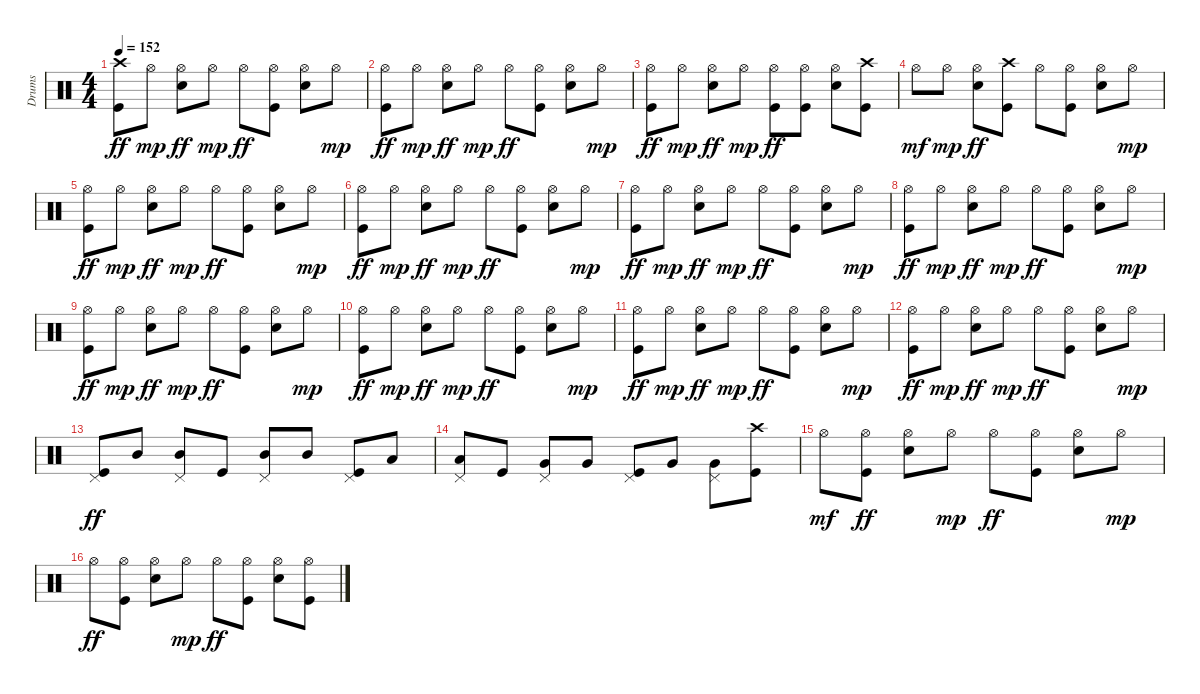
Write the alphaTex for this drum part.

\track ("Drums" "Drums") {instrument percussion}
\staff {score}
\articulation defaults
\ts (4 4)
\tempo 152
\clef neutral
\ks c
("Crash high (hit)" "Kick (hit)").8{dy ff} "Hi-Hat (open)".8{dy mp} ("Hi-Hat (open)" "Snare (hit) 2").8{dy ff} "Hi-Hat (open)".8{dy mp} "Hi-Hat (open)".8{dy ff} ("Hi-Hat (open)" "Kick (hit)").8 ("Hi-Hat (open)" "Snare (hit) 2").8 "Hi-Hat (open)".8{dy mp} |
("Hi-Hat (open)" "Kick (hit)").8{dy ff} "Hi-Hat (open)".8{dy mp} ("Hi-Hat (open)" "Snare (hit) 2").8{dy ff} "Hi-Hat (open)".8{dy mp} "Hi-Hat (open)".8{dy ff} ("Hi-Hat (open)" "Kick (hit)").8 ("Hi-Hat (open)" "Snare (hit) 2").8 "Hi-Hat (open)".8{dy mp} |
("Hi-Hat (open)" "Kick (hit)").8{dy ff} "Hi-Hat (open)".8{dy mp} ("Hi-Hat (open)" "Snare (hit) 2").8{dy ff} "Hi-Hat (open)".8{dy mp} ("Hi-Hat (open)" "Kick (hit)").8{dy ff} ("Hi-Hat (open)" "Kick (hit)").8 ("Hi-Hat (open)" "Snare (hit) 2").8 ("Crash high (hit)" "Kick (hit)").8 |
"Hi-Hat (open)".8{dy mf} "Hi-Hat (open)".8{dy mp} ("Hi-Hat (open)" "Snare (hit) 2").8{dy ff} ("Crash high (hit)" "Kick (hit)").8 "Hi-Hat (open)".8 ("Hi-Hat (open)" "Kick (hit)").8 ("Hi-Hat (open)" "Snare (hit) 2").8 "Hi-Hat (open)".8{dy mp} |
("Hi-Hat (open)" "Kick (hit)").8{dy ff} "Hi-Hat (open)".8{dy mp} ("Hi-Hat (open)" "Snare (hit) 2").8{dy ff} "Hi-Hat (open)".8{dy mp} "Hi-Hat (open)".8{dy ff} ("Hi-Hat (open)" "Kick (hit)").8 ("Hi-Hat (open)" "Snare (hit) 2").8 "Hi-Hat (open)".8{dy mp} |
("Hi-Hat (open)" "Kick (hit)").8{dy ff} "Hi-Hat (open)".8{dy mp} ("Hi-Hat (open)" "Snare (hit) 2").8{dy ff} "Hi-Hat (open)".8{dy mp} "Hi-Hat (open)".8{dy ff} ("Hi-Hat (open)" "Kick (hit)").8 ("Hi-Hat (open)" "Snare (hit) 2").8 "Hi-Hat (open)".8{dy mp} |
("Hi-Hat (open)" "Kick (hit)").8{dy ff} "Hi-Hat (open)".8{dy mp} ("Hi-Hat (open)" "Snare (hit) 2").8{dy ff} "Hi-Hat (open)".8{dy mp} "Hi-Hat (open)".8{dy ff} ("Hi-Hat (open)" "Kick (hit)").8 ("Hi-Hat (open)" "Snare (hit) 2").8 "Hi-Hat (open)".8{dy mp} |
("Hi-Hat (open)" "Kick (hit)").8{dy ff} "Hi-Hat (open)".8{dy mp} ("Hi-Hat (open)" "Snare (hit) 2").8{dy ff} "Hi-Hat (open)".8{dy mp} "Hi-Hat (open)".8{dy ff} ("Hi-Hat (open)" "Kick (hit)").8 ("Hi-Hat (open)" "Snare (hit) 2").8 "Hi-Hat (open)".8{dy mp} |
("Hi-Hat (open)" "Kick (hit)").8{dy ff} "Hi-Hat (open)".8{dy mp} ("Hi-Hat (open)" "Snare (hit) 2").8{dy ff} "Hi-Hat (open)".8{dy mp} "Hi-Hat (open)".8{dy ff} ("Hi-Hat (open)" "Kick (hit)").8 ("Hi-Hat (open)" "Snare (hit) 2").8 "Hi-Hat (open)".8{dy mp} |
("Hi-Hat (open)" "Kick (hit)").8{dy ff} "Hi-Hat (open)".8{dy mp} ("Hi-Hat (open)" "Snare (hit) 2").8{dy ff} "Hi-Hat (open)".8{dy mp} "Hi-Hat (open)".8{dy ff} ("Hi-Hat (open)" "Kick (hit)").8 ("Hi-Hat (open)" "Snare (hit) 2").8 "Hi-Hat (open)".8{dy mp} |
("Hi-Hat (open)" "Kick (hit)").8{dy ff} "Hi-Hat (open)".8{dy mp} ("Hi-Hat (open)" "Snare (hit) 2").8{dy ff} "Hi-Hat (open)".8{dy mp} "Hi-Hat (open)".8{dy ff} ("Hi-Hat (open)" "Kick (hit)").8 ("Hi-Hat (open)" "Snare (hit) 2").8 "Hi-Hat (open)".8{dy mp} |
("Hi-Hat (open)" "Kick (hit)").8{dy ff} "Hi-Hat (open)".8{dy mp} ("Hi-Hat (open)" "Snare (hit) 2").8{dy ff} "Hi-Hat (open)".8{dy mp} "Hi-Hat (open)".8{dy ff} ("Hi-Hat (open)" "Kick (hit)").8 ("Hi-Hat (open)" "Snare (hit) 2").8 "Hi-Hat (open)".8{dy mp} |
("Pedal Hi-Hat (hit)" "Kick (hit)").8{dy ff} "Mid Tom (hit)".8 ("Pedal Hi-Hat (hit)" "Mid Tom (hit)").8 "Kick (hit)".8 ("Pedal Hi-Hat (hit)" "Mid Tom (hit)").8 "Mid Tom (hit)".8 ("Pedal Hi-Hat (hit)" "Kick (hit)").8 "Low Tom (hit)".8 |
("Pedal Hi-Hat (hit)" "Low Tom (hit)").8 "Kick (hit)".8 ("Pedal Hi-Hat (hit)" "Very Low Tom (hit)").8 "Very Low Tom (hit)".8 ("Pedal Hi-Hat (hit)" "Kick (hit)").8 "Very Low Tom (hit)".8 ("Pedal Hi-Hat (hit)" "Very Low Tom (hit)").8 ("Crash high (hit)" "Kick (hit)").8 |
"Hi-Hat (open)".8{dy mf} ("Hi-Hat (open)" "Kick (hit)").8{dy ff} ("Hi-Hat (open)" "Snare (hit) 2").8 "Hi-Hat (open)".8{dy mp} "Hi-Hat (open)".8{dy ff} ("Hi-Hat (open)" "Kick (hit)").8 ("Hi-Hat (open)" "Snare (hit) 2").8 "Hi-Hat (open)".8{dy mp} |
"Hi-Hat (open)".8{dy ff} ("Hi-Hat (open)" "Kick (hit)").8 ("Hi-Hat (open)" "Snare (hit) 2").8 "Hi-Hat (open)".8{dy mp} "Hi-Hat (open)".8{dy ff} ("Hi-Hat (open)" "Kick (hit)").8 ("Hi-Hat (open)" "Snare (hit) 2").8 ("Hi-Hat (open)" "Kick (hit)").8
